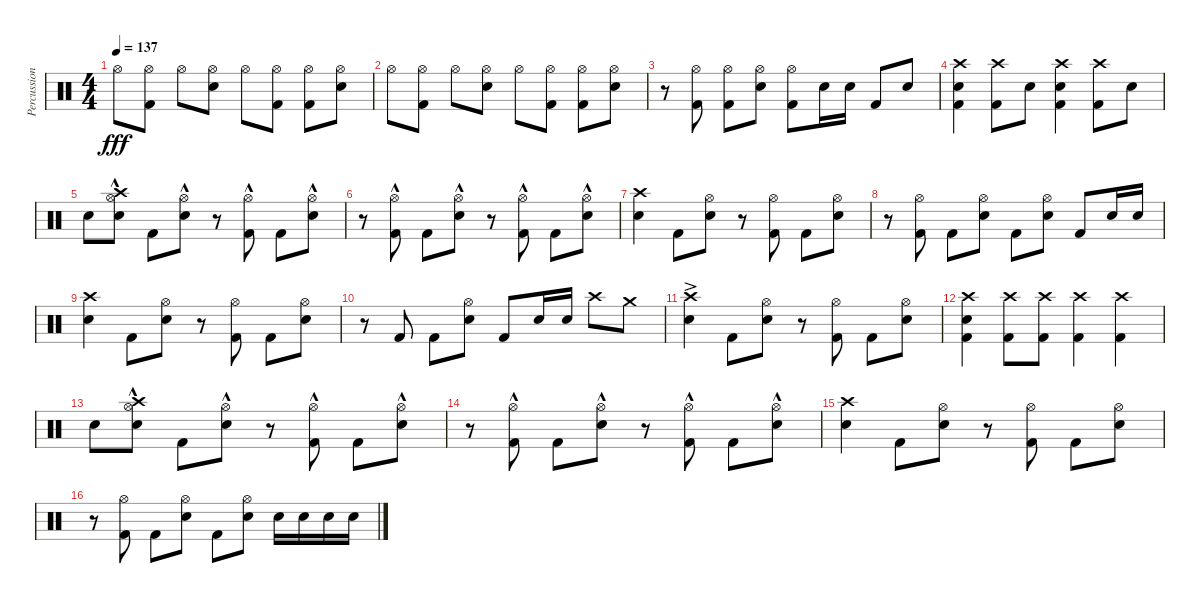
\track ("Percussion" "Percussion") {solo instrument percussion}
\staff {score}
\articulation defaults
\ts (4 4)
\tempo 137
\clef neutral
\ks c "Hi-Hat (open)".8{dy fff}
("Kick (hit) 2" "Hi-Hat (open)").8 "Hi-Hat (open)".8 ("Electric Snare (hit)" "Hi-Hat (open)").8 "Hi-Hat (open)".8 ("Kick (hit) 2" "Hi-Hat (open)").8 ("Kick (hit) 2" "Hi-Hat (open)").8 ("Electric Snare (hit)" "Hi-Hat (open)").8 |
"Hi-Hat (open)".8 ("Kick (hit) 2" "Hi-Hat (open)").8 "Hi-Hat (open)".8 ("Electric Snare (hit)" "Hi-Hat (open)").8 "Hi-Hat (open)".8 ("Kick (hit) 2" "Hi-Hat (open)").8 ("Kick (hit) 2" "Hi-Hat (open)").8 ("Electric Snare (hit)" "Hi-Hat (open)").8 |
r.8 ("Hi-Hat (open)" "Kick (hit) 2").8 ("Hi-Hat (open)" "Kick (hit) 2").8 ("Hi-Hat (open)" "Electric Snare (hit)").8 ("Hi-Hat (open)" "Kick (hit) 2").8 "Electric Snare (hit)".16 "Electric Snare (hit)".16 "Kick (hit) 2".8 "Electric Snare (hit)".8 |
("Crash high (hit)" "Electric Snare (hit)" "Kick (hit) 2").4 ("Kick (hit) 2" "Crash high (hit)").8 "Electric Snare (hit)".8 ("Kick (hit) 2" "Electric Snare (hit)" "Crash high (hit)").4 ("Kick (hit) 2" "Crash high (hit)").8 "Electric Snare (hit)".8 |
"Electric Snare (hit)".8 ("Hi-Hat (open)" "Crash high (hit)"{hac} "Electric Snare (hit)").8 "Kick (hit) 2".8 ("Hi-Hat (open)"{hac} "Electric Snare (hit)").8 r.8 ("Kick (hit) 2" "Hi-Hat (open)"{hac}).8 "Kick (hit) 2".8 ("Electric Snare (hit)" "Hi-Hat (open)"{hac}).8 |
r.8 ("Kick (hit) 2" "Hi-Hat (open)"{hac}).8 "Kick (hit) 2".8 ("Electric Snare (hit)" "Hi-Hat (open)"{hac}).8 r.8 ("Kick (hit) 2" "Hi-Hat (open)"{hac}).8 "Kick (hit) 2".8 ("Electric Snare (hit)" "Hi-Hat (open)"{hac}).8 |
("Crash high (hit)" "Electric Snare (hit)").4 "Kick (hit) 2".8 ("Electric Snare (hit)" "Hi-Hat (open)").8 r.8 ("Kick (hit) 2" "Hi-Hat (open)").8 "Kick (hit) 2".8 ("Electric Snare (hit)" "Hi-Hat (open)").8 |
r.8 ("Kick (hit) 2" "Hi-Hat (open)").8 "Kick (hit) 2".8 ("Electric Snare (hit)" "Hi-Hat (open)").8 "Kick (hit) 2".8 ("Electric Snare (hit)" "Hi-Hat (open)").8 "Kick (hit) 2".8 "Electric Snare (hit)".16 "Electric Snare (hit)".16 |
("Crash high (hit)" "Electric Snare (hit)").4 "Kick (hit) 2".8 ("Electric Snare (hit)" "Hi-Hat (open)").8 r.8 ("Kick (hit) 2" "Hi-Hat (open)").8 "Kick (hit) 2".8 ("Electric Snare (hit)" "Hi-Hat (open)").8 |
r.8 "Kick (hit) 2".8 "Kick (hit) 2".8 ("Electric Snare (hit)" "Hi-Hat (open)").8 "Kick (hit) 2".8 "Electric Snare (hit)".16 "Electric Snare (hit)".16 "Crash high (hit)".8 "Crash medium (hit)".8 |
("Crash high (hit)"{ac} "Electric Snare (hit)"{ac}).4 "Kick (hit) 2".8 ("Electric Snare (hit)" "Hi-Hat (open)").8 r.8 ("Kick (hit) 2" "Hi-Hat (open)").8 "Kick (hit) 2".8 ("Electric Snare (hit)" "Hi-Hat (open)").8 |
("Crash high (hit)" "Electric Snare (hit)" "Kick (hit) 2").4 ("Crash high (hit)" "Kick (hit) 2").8 ("Crash high (hit)" "Kick (hit) 2").8 ("Crash high (hit)" "Kick (hit) 2").4 ("Crash high (hit)" "Kick (hit) 2").4 |
"Electric Snare (hit)".8 ("Hi-Hat (open)" "Crash high (hit)"{hac} "Electric Snare (hit)").8 "Kick (hit) 2".8 ("Hi-Hat (open)"{hac} "Electric Snare (hit)").8 r.8 ("Kick (hit) 2" "Hi-Hat (open)"{hac}).8 "Kick (hit) 2".8 ("Electric Snare (hit)" "Hi-Hat (open)"{hac}).8 |
r.8 ("Kick (hit) 2" "Hi-Hat (open)"{hac}).8 "Kick (hit) 2".8 ("Electric Snare (hit)" "Hi-Hat (open)"{hac}).8 r.8 ("Kick (hit) 2" "Hi-Hat (open)"{hac}).8 "Kick (hit) 2".8 ("Electric Snare (hit)" "Hi-Hat (open)"{hac}).8 |
("Crash high (hit)" "Electric Snare (hit)").4 "Kick (hit) 2".8 ("Electric Snare (hit)" "Hi-Hat (open)").8 r.8 ("Kick (hit) 2" "Hi-Hat (open)").8 "Kick (hit) 2".8 ("Electric Snare (hit)" "Hi-Hat (open)").8 |
r.8 ("Kick (hit) 2" "Hi-Hat (open)").8 "Kick (hit) 2".8 ("Electric Snare (hit)" "Hi-Hat (open)").8 "Kick (hit) 2".8 ("Electric Snare (hit)" "Hi-Hat (open)").8 "Electric Snare (hit)".16 "Electric Snare (hit)".16 "Electric Snare (hit)".16 "Electric Snare (hit)".16
